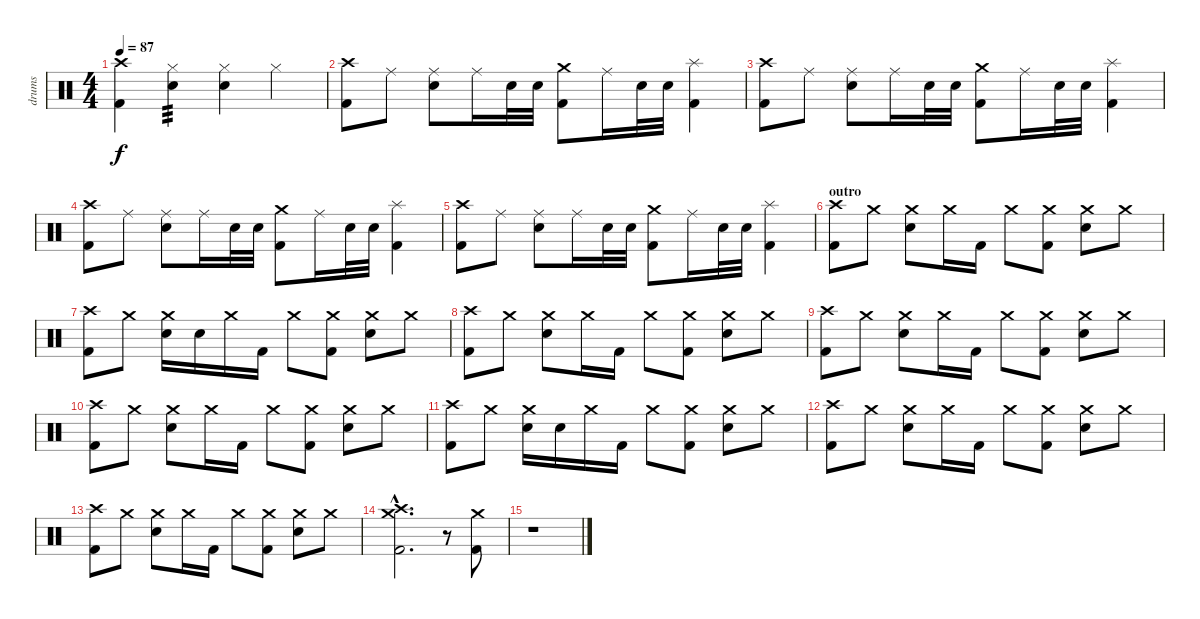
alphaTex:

\track ("drums" "drums") {instrument percussion}
\staff {score}
\articulation defaults
\ts (4 4)
\tempo 87
\clef neutral
\ks c
("Crash high (hit)" "Kick (hit) 2").4{dy f} ("Hi-Hat (closed)" "Electric Snare (hit)").4{tp 3} ("Hi-Hat (closed)" "Electric Snare (hit)").4 "Hi-Hat (closed)".4 |
("Crash high (hit)" "Kick (hit) 2").8 "Ride (middle)".8 ("Ride (middle)" "Electric Snare (hit)").8 "Ride (middle)".16 "Electric Snare (hit)".32 "Electric Snare (hit)".32 ("Crash medium (hit)" "Kick (hit) 2").8 "Ride (middle)".16 "Electric Snare (hit)".32 "Electric Snare (hit)".32 ("Splash (hit)" "Kick (hit) 2").4 |
("Crash high (hit)" "Kick (hit) 2").8 "Ride (middle)".8 ("Ride (middle)" "Electric Snare (hit)").8 "Ride (middle)".16 "Electric Snare (hit)".32 "Electric Snare (hit)".32 ("Crash medium (hit)" "Kick (hit) 2").8 "Ride (middle)".16 "Electric Snare (hit)".32 "Electric Snare (hit)".32 ("Splash (hit)" "Kick (hit) 2").4 |
("Crash high (hit)" "Kick (hit) 2").8 "Ride (middle)".8 ("Ride (middle)" "Electric Snare (hit)").8 "Ride (middle)".16 "Electric Snare (hit)".32 "Electric Snare (hit)".32 ("Crash medium (hit)" "Kick (hit) 2").8 "Ride (middle)".16 "Electric Snare (hit)".32 "Electric Snare (hit)".32 ("Splash (hit)" "Kick (hit) 2").4 |
("Crash high (hit)" "Kick (hit) 2").8 "Ride (middle)".8 ("Ride (middle)" "Electric Snare (hit)").8 "Ride (middle)".16 "Electric Snare (hit)".32 "Electric Snare (hit)".32 ("Crash medium (hit)" "Kick (hit) 2").8 "Ride (middle)".16 "Electric Snare (hit)".32 "Electric Snare (hit)".32 ("Splash (hit)" "Kick (hit) 2").4 |
\section ("" "outro")
("Crash high (hit)" "Kick (hit) 2").8 "Crash medium (hit)".8 ("Crash medium (hit)" "Electric Snare (hit)").8 "Crash medium (hit)".16 "Kick (hit) 2".16 "Crash medium (hit)".8 ("Crash medium (hit)" "Kick (hit) 2").8 ("Crash medium (hit)" "Electric Snare (hit)").8 "Crash medium (hit)".8 |
("Crash high (hit)" "Kick (hit) 2").8 "Crash medium (hit)".8 ("Crash medium (hit)" "Electric Snare (hit)").16 "Electric Snare (hit)".16 "Crash medium (hit)".16 "Kick (hit) 2".16 "Crash medium (hit)".8 ("Crash medium (hit)" "Kick (hit) 2").8 ("Crash medium (hit)" "Electric Snare (hit)").8 "Crash medium (hit)".8 |
("Crash high (hit)" "Kick (hit) 2").8 "Crash medium (hit)".8 ("Crash medium (hit)" "Electric Snare (hit)").8 "Crash medium (hit)".16 "Kick (hit) 2".16 "Crash medium (hit)".8 ("Crash medium (hit)" "Kick (hit) 2").8 ("Crash medium (hit)" "Electric Snare (hit)").8 "Crash medium (hit)".8 |
("Crash high (hit)" "Kick (hit) 2").8 "Crash medium (hit)".8 ("Crash medium (hit)" "Electric Snare (hit)").8 "Crash medium (hit)".16 "Kick (hit) 2".16 "Crash medium (hit)".8 ("Crash medium (hit)" "Kick (hit) 2").8 ("Crash medium (hit)" "Electric Snare (hit)").8 "Crash medium (hit)".8 |
("Crash high (hit)" "Kick (hit) 2").8 "Crash medium (hit)".8 ("Crash medium (hit)" "Electric Snare (hit)").8 "Crash medium (hit)".16 "Kick (hit) 2".16 "Crash medium (hit)".8 ("Crash medium (hit)" "Kick (hit) 2").8 ("Crash medium (hit)" "Electric Snare (hit)").8 "Crash medium (hit)".8 |
("Crash high (hit)" "Kick (hit) 2").8 "Crash medium (hit)".8 ("Crash medium (hit)" "Electric Snare (hit)").16 "Electric Snare (hit)".16 "Crash medium (hit)".16 "Kick (hit) 2".16 "Crash medium (hit)".8 ("Crash medium (hit)" "Kick (hit) 2").8 ("Crash medium (hit)" "Electric Snare (hit)").8 "Crash medium (hit)".8 |
("Crash high (hit)" "Kick (hit) 2").8 "Crash medium (hit)".8 ("Crash medium (hit)" "Electric Snare (hit)").8 "Crash medium (hit)".16 "Kick (hit) 2".16 "Crash medium (hit)".8 ("Crash medium (hit)" "Kick (hit) 2").8 ("Crash medium (hit)" "Electric Snare (hit)").8 "Crash medium (hit)".8 |
("Crash high (hit)" "Kick (hit) 2").8 "Crash medium (hit)".8 ("Crash medium (hit)" "Electric Snare (hit)").8 "Crash medium (hit)".16 "Kick (hit) 2".16 "Crash medium (hit)".8 ("Crash medium (hit)" "Kick (hit) 2").8 ("Crash medium (hit)" "Electric Snare (hit)").8 "Crash medium (hit)".8 |
("Crash high (hit)"{hac} "Crash medium (hit)"{hac} "Kick (hit) 2"{hac}).2{d} r.8 ("Crash medium (hit)" "Kick (hit) 2").8 |
r.1
